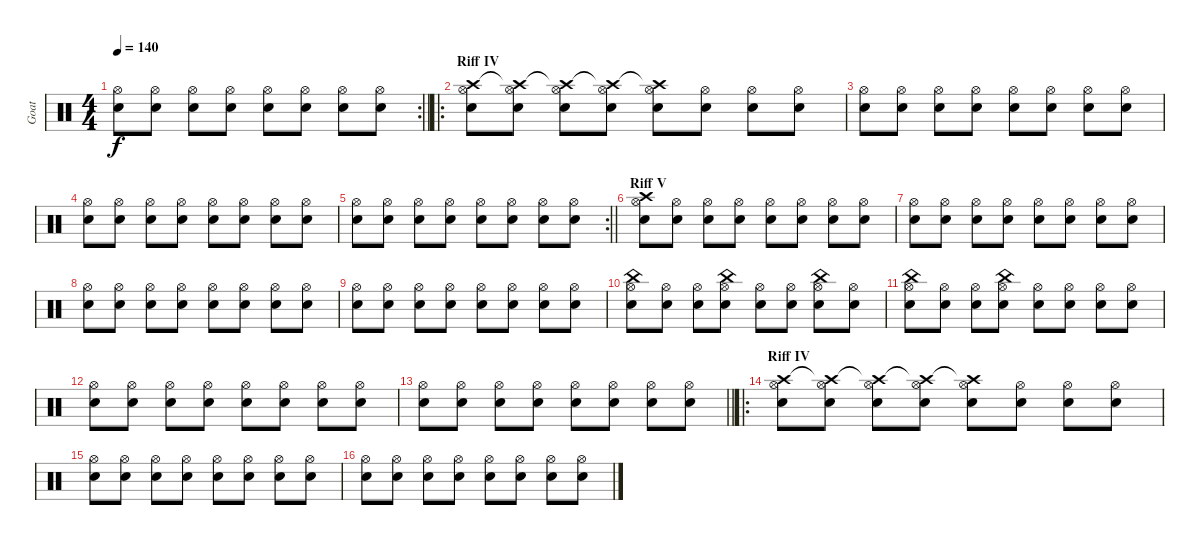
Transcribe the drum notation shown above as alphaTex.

\track ("Goat" "Goat") {instrument percussion}
\staff {score}
\articulation defaults
\rc 2
\ts (4 4)
\tempo 140
\clef neutral
\barLineRight lightlight
\ks c
("Hi-Hat (open)" "Snare (hit) 2").8{dy f} ("Hi-Hat (open)" "Snare (hit) 2").8 ("Hi-Hat (open)" "Snare (hit) 2").8 ("Hi-Hat (open)" "Snare (hit) 2").8 ("Hi-Hat (open)" "Snare (hit) 2").8 ("Hi-Hat (open)" "Snare (hit) 2").8 ("Hi-Hat (open)" "Snare (hit) 2").8 ("Hi-Hat (open)" "Snare (hit) 2").8 |
\ro
\section ("" "Riff IV")
("Crash high (hit)" "Hi-Hat (open)" "Snare (hit) 2").8 ("Crash high (hit)"{t} "Hi-Hat (open)" "Snare (hit) 2").8 ("Crash high (hit)"{t} "Hi-Hat (open)" "Snare (hit) 2").8 ("Crash high (hit)"{t} "Hi-Hat (open)" "Snare (hit) 2").8 ("Crash high (hit)"{t} "Hi-Hat (open)" "Snare (hit) 2").8 ("Hi-Hat (open)" "Snare (hit) 2").8 ("Hi-Hat (open)" "Snare (hit) 2").8 ("Hi-Hat (open)" "Snare (hit) 2").8 |
("Hi-Hat (open)" "Snare (hit) 2").8 ("Hi-Hat (open)" "Snare (hit) 2").8 ("Hi-Hat (open)" "Snare (hit) 2").8 ("Hi-Hat (open)" "Snare (hit) 2").8 ("Hi-Hat (open)" "Snare (hit) 2").8 ("Hi-Hat (open)" "Snare (hit) 2").8 ("Hi-Hat (open)" "Snare (hit) 2").8 ("Hi-Hat (open)" "Snare (hit) 2").8 |
("Hi-Hat (open)" "Snare (hit) 2").8 ("Hi-Hat (open)" "Snare (hit) 2").8 ("Hi-Hat (open)" "Snare (hit) 2").8 ("Hi-Hat (open)" "Snare (hit) 2").8 ("Hi-Hat (open)" "Snare (hit) 2").8 ("Hi-Hat (open)" "Snare (hit) 2").8 ("Hi-Hat (open)" "Snare (hit) 2").8 ("Hi-Hat (open)" "Snare (hit) 2").8 |
\rc 2
\barLineRight lightlight
("Hi-Hat (open)" "Snare (hit) 2").8 ("Hi-Hat (open)" "Snare (hit) 2").8 ("Hi-Hat (open)" "Snare (hit) 2").8 ("Hi-Hat (open)" "Snare (hit) 2").8 ("Hi-Hat (open)" "Snare (hit) 2").8 ("Hi-Hat (open)" "Snare (hit) 2").8 ("Hi-Hat (open)" "Snare (hit) 2").8 ("Hi-Hat (open)" "Snare (hit) 2").8 |
\section ("" "Riff V")
("Crash high (hit)" "Hi-Hat (open)" "Snare (hit) 2").8 ("Hi-Hat (open)" "Snare (hit) 2").8 ("Hi-Hat (open)" "Snare (hit) 2").8 ("Hi-Hat (open)" "Snare (hit) 2").8 ("Hi-Hat (open)" "Snare (hit) 2").8 ("Hi-Hat (open)" "Snare (hit) 2").8 ("Hi-Hat (open)" "Snare (hit) 2").8 ("Hi-Hat (open)" "Snare (hit) 2").8 |
("Hi-Hat (open)" "Snare (hit) 2").8 ("Hi-Hat (open)" "Snare (hit) 2").8 ("Hi-Hat (open)" "Snare (hit) 2").8 ("Hi-Hat (open)" "Snare (hit) 2").8 ("Hi-Hat (open)" "Snare (hit) 2").8 ("Hi-Hat (open)" "Snare (hit) 2").8 ("Hi-Hat (open)" "Snare (hit) 2").8 ("Hi-Hat (open)" "Snare (hit) 2").8 |
("Hi-Hat (open)" "Snare (hit) 2").8 ("Hi-Hat (open)" "Snare (hit) 2").8 ("Hi-Hat (open)" "Snare (hit) 2").8 ("Hi-Hat (open)" "Snare (hit) 2").8 ("Hi-Hat (open)" "Snare (hit) 2").8 ("Hi-Hat (open)" "Snare (hit) 2").8 ("Hi-Hat (open)" "Snare (hit) 2").8 ("Hi-Hat (open)" "Snare (hit) 2").8 |
("Hi-Hat (open)" "Snare (hit) 2").8 ("Hi-Hat (open)" "Snare (hit) 2").8 ("Hi-Hat (open)" "Snare (hit) 2").8 ("Hi-Hat (open)" "Snare (hit) 2").8 ("Hi-Hat (open)" "Snare (hit) 2").8 ("Hi-Hat (open)" "Snare (hit) 2").8 ("Hi-Hat (open)" "Snare (hit) 2").8 ("Hi-Hat (open)" "Snare (hit) 2").8 |
("China (hit)" "Hi-Hat (open)" "Snare (hit) 2").8 ("Hi-Hat (open)" "Snare (hit) 2").8 ("Hi-Hat (open)" "Snare (hit) 2").8 ("China (hit)" "Hi-Hat (open)" "Snare (hit) 2").8 ("Hi-Hat (open)" "Snare (hit) 2").8 ("Hi-Hat (open)" "Snare (hit) 2").8 ("China (hit)" "Hi-Hat (open)" "Snare (hit) 2").8 ("Hi-Hat (open)" "Snare (hit) 2").8 |
("China (hit)" "Hi-Hat (open)" "Snare (hit) 2").8 ("Hi-Hat (open)" "Snare (hit) 2").8 ("Hi-Hat (open)" "Snare (hit) 2").8 ("China (hit)" "Hi-Hat (open)" "Snare (hit) 2").8 ("Hi-Hat (open)" "Snare (hit) 2").8 ("Hi-Hat (open)" "Snare (hit) 2").8 ("Hi-Hat (open)" "Snare (hit) 2").8 ("Hi-Hat (open)" "Snare (hit) 2").8 |
("Hi-Hat (open)" "Snare (hit) 2").8 ("Hi-Hat (open)" "Snare (hit) 2").8 ("Hi-Hat (open)" "Snare (hit) 2").8 ("Hi-Hat (open)" "Snare (hit) 2").8 ("Hi-Hat (open)" "Snare (hit) 2").8 ("Hi-Hat (open)" "Snare (hit) 2").8 ("Hi-Hat (open)" "Snare (hit) 2").8 ("Hi-Hat (open)" "Snare (hit) 2").8 |
\barLineRight lightlight
("Hi-Hat (open)" "Snare (hit) 2").8 ("Hi-Hat (open)" "Snare (hit) 2").8 ("Hi-Hat (open)" "Snare (hit) 2").8 ("Hi-Hat (open)" "Snare (hit) 2").8 ("Hi-Hat (open)" "Snare (hit) 2").8 ("Hi-Hat (open)" "Snare (hit) 2").8 ("Hi-Hat (open)" "Snare (hit) 2").8 ("Hi-Hat (open)" "Snare (hit) 2").8 |
\ro
\section ("" "Riff IV")
("Crash high (hit)" "Hi-Hat (open)" "Snare (hit) 2").8 ("Crash high (hit)"{t} "Hi-Hat (open)" "Snare (hit) 2").8 ("Crash high (hit)"{t} "Hi-Hat (open)" "Snare (hit) 2").8 ("Crash high (hit)"{t} "Hi-Hat (open)" "Snare (hit) 2").8 ("Crash high (hit)"{t} "Hi-Hat (open)" "Snare (hit) 2").8 ("Hi-Hat (open)" "Snare (hit) 2").8 ("Hi-Hat (open)" "Snare (hit) 2").8 ("Hi-Hat (open)" "Snare (hit) 2").8 |
("Hi-Hat (open)" "Snare (hit) 2").8 ("Hi-Hat (open)" "Snare (hit) 2").8 ("Hi-Hat (open)" "Snare (hit) 2").8 ("Hi-Hat (open)" "Snare (hit) 2").8 ("Hi-Hat (open)" "Snare (hit) 2").8 ("Hi-Hat (open)" "Snare (hit) 2").8 ("Hi-Hat (open)" "Snare (hit) 2").8 ("Hi-Hat (open)" "Snare (hit) 2").8 |
("Hi-Hat (open)" "Snare (hit) 2").8 ("Hi-Hat (open)" "Snare (hit) 2").8 ("Hi-Hat (open)" "Snare (hit) 2").8 ("Hi-Hat (open)" "Snare (hit) 2").8 ("Hi-Hat (open)" "Snare (hit) 2").8 ("Hi-Hat (open)" "Snare (hit) 2").8 ("Hi-Hat (open)" "Snare (hit) 2").8 ("Hi-Hat (open)" "Snare (hit) 2").8
